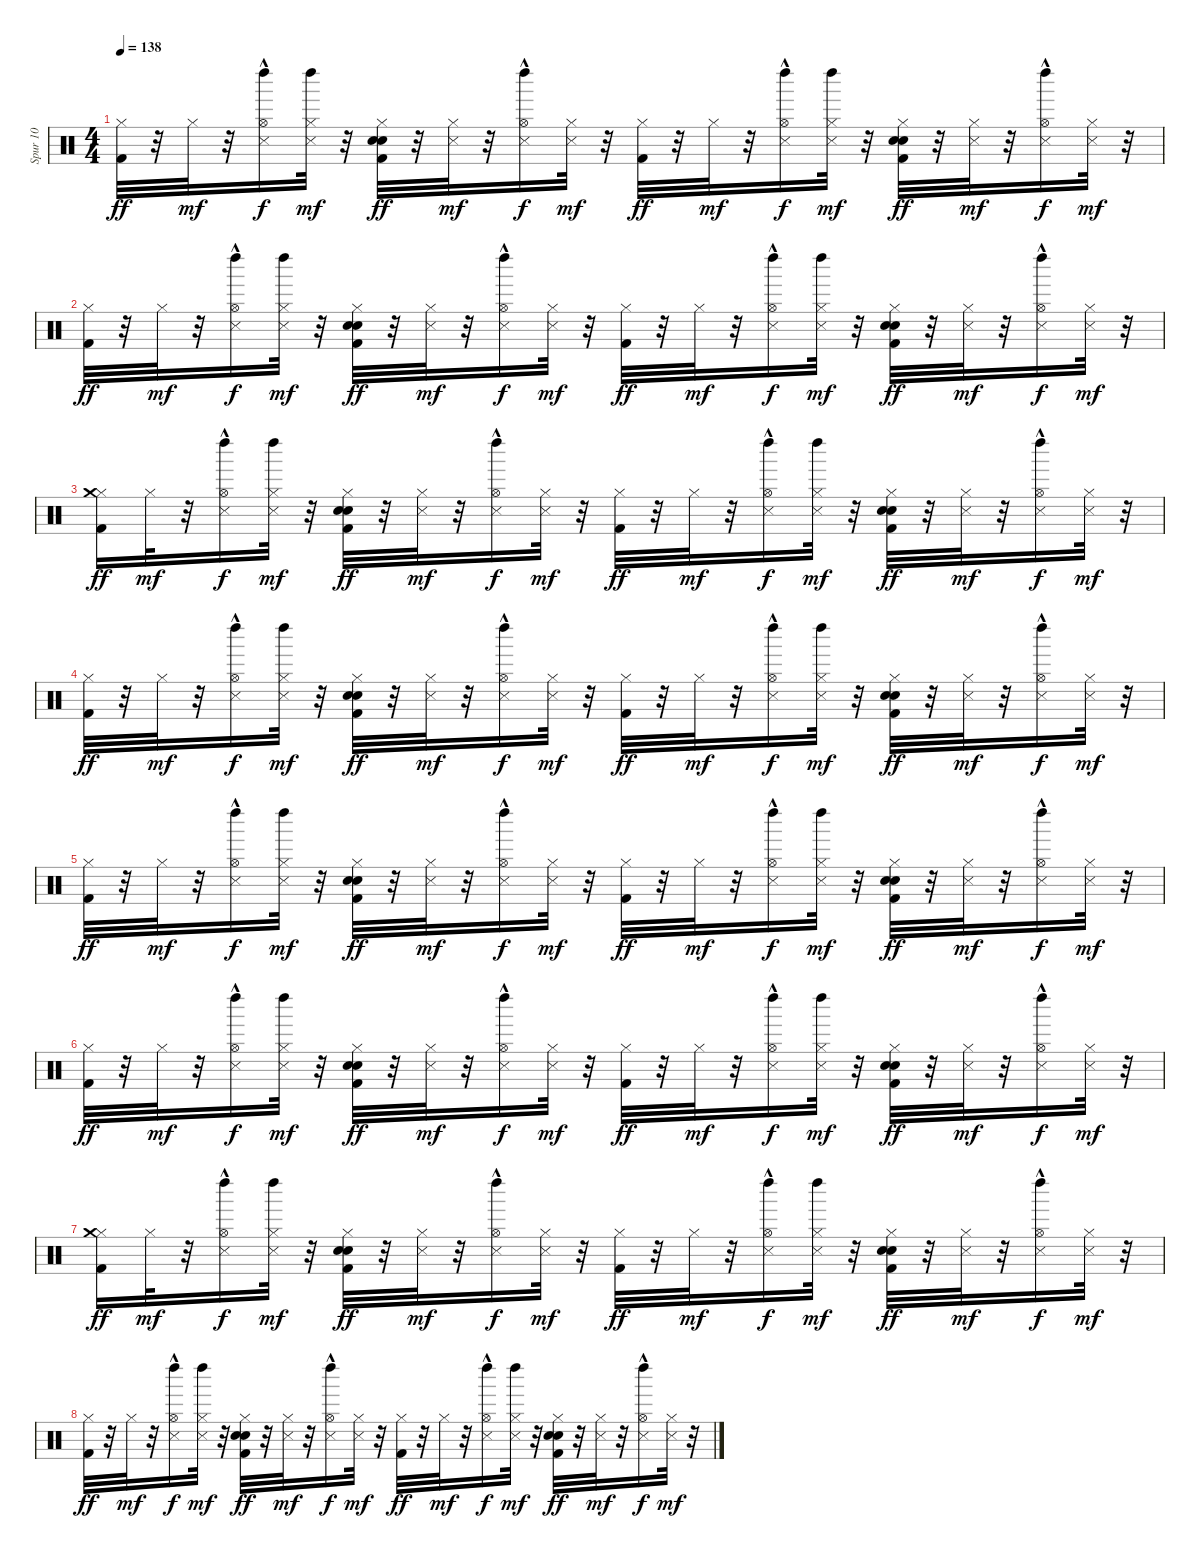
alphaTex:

\track ("Spur 10" "Spur 10") {instrument percussion}
\staff {score}
\articulation defaults
\ts (4 4)
\tempo 138
\clef neutral
\ks c
("Hi-Hat (closed)" "Kick (hit) 2").32{dy ff} r.32 "Hi-Hat (closed)".32{dy mf} r.32 ("Snare (side stick) 3" "Hi-Hat (open)"{hac} "Left Maraca (hit)").16{dy f} ("Hi-Hat (closed)" "Snare (side stick) 3" "Left Maraca (hit)").32{dy mf} r.32 ("Hand Clap (hit)" "Hi-Hat (closed)" "Kick (hit) 2" "Electric Snare (hit)").32{dy ff} r.32 ("Hi-Hat (closed)" "Snare (side stick) 3").32{dy mf} r.32 ("Snare (side stick) 3" "Hi-Hat (open)"{hac} "Left Maraca (hit)").16{dy f} ("Hi-Hat (closed)" "Snare (side stick) 3").32{dy mf} r.32 ("Hi-Hat (closed)" "Kick (hit) 2").32{dy ff} r.32 "Hi-Hat (closed)".32{dy mf} r.32 ("Snare (side stick) 3" "Hi-Hat (open)"{hac} "Left Maraca (hit)").16{dy f} ("Hi-Hat (closed)" "Snare (side stick) 3" "Left Maraca (hit)").32{dy mf} r.32 ("Hand Clap (hit)" "Hi-Hat (closed)" "Kick (hit) 2" "Electric Snare (hit)").32{dy ff} r.32 ("Hi-Hat (closed)" "Snare (side stick) 3").32{dy mf} r.32 ("Snare (side stick) 3" "Hi-Hat (open)"{hac} "Left Maraca (hit)").16{dy f} ("Hi-Hat (closed)" "Snare (side stick) 3").32{dy mf} r.32 |
("Hi-Hat (closed)" "Kick (hit) 2").32{dy ff} r.32 "Hi-Hat (closed)".32{dy mf} r.32 ("Snare (side stick) 3" "Hi-Hat (open)"{hac} "Left Maraca (hit)").16{dy f} ("Hi-Hat (closed)" "Snare (side stick) 3" "Left Maraca (hit)").32{dy mf} r.32 ("Hand Clap (hit)" "Hi-Hat (closed)" "Kick (hit) 2" "Electric Snare (hit)").32{dy ff} r.32 ("Hi-Hat (closed)" "Snare (side stick) 3").32{dy mf} r.32 ("Snare (side stick) 3" "Hi-Hat (open)"{hac} "Left Maraca (hit)").16{dy f} ("Hi-Hat (closed)" "Snare (side stick) 3").32{dy mf} r.32 ("Hi-Hat (closed)" "Kick (hit) 2").32{dy ff} r.32 "Hi-Hat (closed)".32{dy mf} r.32 ("Snare (side stick) 3" "Hi-Hat (open)"{hac} "Left Maraca (hit)").16{dy f} ("Hi-Hat (closed)" "Snare (side stick) 3" "Left Maraca (hit)").32{dy mf} r.32 ("Hand Clap (hit)" "Hi-Hat (closed)" "Kick (hit) 2" "Electric Snare (hit)").32{dy ff} r.32 ("Hi-Hat (closed)" "Snare (side stick) 3").32{dy mf} r.32 ("Snare (side stick) 3" "Hi-Hat (open)"{hac} "Left Maraca (hit)").16{dy f} ("Hi-Hat (closed)" "Snare (side stick) 3").32{dy mf} r.32 |
("Hi-Hat (closed)" "Crash medium (hit)" "Kick (hit) 2").16{dy ff} "Hi-Hat (closed)".32{dy mf} r.32 ("Snare (side stick) 3" "Hi-Hat (open)"{hac} "Left Maraca (hit)").16{dy f} ("Hi-Hat (closed)" "Snare (side stick) 3" "Left Maraca (hit)").32{dy mf} r.32 ("Hand Clap (hit)" "Hi-Hat (closed)" "Kick (hit) 2" "Electric Snare (hit)").32{dy ff} r.32 ("Hi-Hat (closed)" "Snare (side stick) 3").32{dy mf} r.32 ("Snare (side stick) 3" "Hi-Hat (open)"{hac} "Left Maraca (hit)").16{dy f} ("Hi-Hat (closed)" "Snare (side stick) 3").32{dy mf} r.32 ("Hi-Hat (closed)" "Kick (hit) 2").32{dy ff} r.32 "Hi-Hat (closed)".32{dy mf} r.32 ("Snare (side stick) 3" "Hi-Hat (open)"{hac} "Left Maraca (hit)").16{dy f} ("Hi-Hat (closed)" "Snare (side stick) 3" "Left Maraca (hit)").32{dy mf} r.32 ("Hand Clap (hit)" "Hi-Hat (closed)" "Kick (hit) 2" "Electric Snare (hit)").32{dy ff} r.32 ("Hi-Hat (closed)" "Snare (side stick) 3").32{dy mf} r.32 ("Snare (side stick) 3" "Hi-Hat (open)"{hac} "Left Maraca (hit)").16{dy f} ("Hi-Hat (closed)" "Snare (side stick) 3").32{dy mf} r.32 |
("Hi-Hat (closed)" "Kick (hit) 2").32{dy ff} r.32 "Hi-Hat (closed)".32{dy mf} r.32 ("Snare (side stick) 3" "Hi-Hat (open)"{hac} "Left Maraca (hit)").16{dy f} ("Hi-Hat (closed)" "Snare (side stick) 3" "Left Maraca (hit)").32{dy mf} r.32 ("Hand Clap (hit)" "Hi-Hat (closed)" "Kick (hit) 2" "Electric Snare (hit)").32{dy ff} r.32 ("Hi-Hat (closed)" "Snare (side stick) 3").32{dy mf} r.32 ("Snare (side stick) 3" "Hi-Hat (open)"{hac} "Left Maraca (hit)").16{dy f} ("Hi-Hat (closed)" "Snare (side stick) 3").32{dy mf} r.32 ("Hi-Hat (closed)" "Kick (hit) 2").32{dy ff} r.32 "Hi-Hat (closed)".32{dy mf} r.32 ("Snare (side stick) 3" "Hi-Hat (open)"{hac} "Left Maraca (hit)").16{dy f} ("Hi-Hat (closed)" "Snare (side stick) 3" "Left Maraca (hit)").32{dy mf} r.32 ("Hand Clap (hit)" "Hi-Hat (closed)" "Kick (hit) 2" "Electric Snare (hit)").32{dy ff} r.32 ("Hi-Hat (closed)" "Snare (side stick) 3").32{dy mf} r.32 ("Snare (side stick) 3" "Hi-Hat (open)"{hac} "Left Maraca (hit)").16{dy f} ("Hi-Hat (closed)" "Snare (side stick) 3").32{dy mf} r.32 |
("Hi-Hat (closed)" "Kick (hit) 2").32{dy ff} r.32 "Hi-Hat (closed)".32{dy mf} r.32 ("Snare (side stick) 3" "Hi-Hat (open)"{hac} "Left Maraca (hit)").16{dy f} ("Hi-Hat (closed)" "Snare (side stick) 3" "Left Maraca (hit)").32{dy mf} r.32 ("Hand Clap (hit)" "Hi-Hat (closed)" "Kick (hit) 2" "Electric Snare (hit)").32{dy ff} r.32 ("Hi-Hat (closed)" "Snare (side stick) 3").32{dy mf} r.32 ("Snare (side stick) 3" "Hi-Hat (open)"{hac} "Left Maraca (hit)").16{dy f} ("Hi-Hat (closed)" "Snare (side stick) 3").32{dy mf} r.32 ("Hi-Hat (closed)" "Kick (hit) 2").32{dy ff} r.32 "Hi-Hat (closed)".32{dy mf} r.32 ("Snare (side stick) 3" "Hi-Hat (open)"{hac} "Left Maraca (hit)").16{dy f} ("Hi-Hat (closed)" "Snare (side stick) 3" "Left Maraca (hit)").32{dy mf} r.32 ("Hand Clap (hit)" "Hi-Hat (closed)" "Kick (hit) 2" "Electric Snare (hit)").32{dy ff} r.32 ("Hi-Hat (closed)" "Snare (side stick) 3").32{dy mf} r.32 ("Snare (side stick) 3" "Hi-Hat (open)"{hac} "Left Maraca (hit)").16{dy f} ("Hi-Hat (closed)" "Snare (side stick) 3").32{dy mf} r.32 |
("Hi-Hat (closed)" "Kick (hit) 2").32{dy ff} r.32 "Hi-Hat (closed)".32{dy mf} r.32 ("Snare (side stick) 3" "Hi-Hat (open)"{hac} "Left Maraca (hit)").16{dy f} ("Hi-Hat (closed)" "Snare (side stick) 3" "Left Maraca (hit)").32{dy mf} r.32 ("Hand Clap (hit)" "Hi-Hat (closed)" "Kick (hit) 2" "Electric Snare (hit)").32{dy ff} r.32 ("Hi-Hat (closed)" "Snare (side stick) 3").32{dy mf} r.32 ("Snare (side stick) 3" "Hi-Hat (open)"{hac} "Left Maraca (hit)").16{dy f} ("Hi-Hat (closed)" "Snare (side stick) 3").32{dy mf} r.32 ("Hi-Hat (closed)" "Kick (hit) 2").32{dy ff} r.32 "Hi-Hat (closed)".32{dy mf} r.32 ("Snare (side stick) 3" "Hi-Hat (open)"{hac} "Left Maraca (hit)").16{dy f} ("Hi-Hat (closed)" "Snare (side stick) 3" "Left Maraca (hit)").32{dy mf} r.32 ("Hand Clap (hit)" "Hi-Hat (closed)" "Kick (hit) 2" "Electric Snare (hit)").32{dy ff} r.32 ("Hi-Hat (closed)" "Snare (side stick) 3").32{dy mf} r.32 ("Snare (side stick) 3" "Hi-Hat (open)"{hac} "Left Maraca (hit)").16{dy f} ("Hi-Hat (closed)" "Snare (side stick) 3").32{dy mf} r.32 |
("Hi-Hat (closed)" "Crash medium (hit)" "Kick (hit) 2").16{dy ff} "Hi-Hat (closed)".32{dy mf} r.32 ("Snare (side stick) 3" "Hi-Hat (open)"{hac} "Left Maraca (hit)").16{dy f} ("Hi-Hat (closed)" "Snare (side stick) 3" "Left Maraca (hit)").32{dy mf} r.32 ("Hand Clap (hit)" "Hi-Hat (closed)" "Kick (hit) 2" "Electric Snare (hit)").32{dy ff} r.32 ("Hi-Hat (closed)" "Snare (side stick) 3").32{dy mf} r.32 ("Snare (side stick) 3" "Hi-Hat (open)"{hac} "Left Maraca (hit)").16{dy f} ("Hi-Hat (closed)" "Snare (side stick) 3").32{dy mf} r.32 ("Hi-Hat (closed)" "Kick (hit) 2").32{dy ff} r.32 "Hi-Hat (closed)".32{dy mf} r.32 ("Snare (side stick) 3" "Hi-Hat (open)"{hac} "Left Maraca (hit)").16{dy f} ("Hi-Hat (closed)" "Snare (side stick) 3" "Left Maraca (hit)").32{dy mf} r.32 ("Hand Clap (hit)" "Hi-Hat (closed)" "Kick (hit) 2" "Electric Snare (hit)").32{dy ff} r.32 ("Hi-Hat (closed)" "Snare (side stick) 3").32{dy mf} r.32 ("Snare (side stick) 3" "Hi-Hat (open)"{hac} "Left Maraca (hit)").16{dy f} ("Hi-Hat (closed)" "Snare (side stick) 3").32{dy mf} r.32 |
("Hi-Hat (closed)" "Kick (hit) 2").32{dy ff} r.32 "Hi-Hat (closed)".32{dy mf} r.32 ("Snare (side stick) 3" "Hi-Hat (open)"{hac} "Left Maraca (hit)").16{dy f} ("Hi-Hat (closed)" "Snare (side stick) 3" "Left Maraca (hit)").32{dy mf} r.32 ("Hand Clap (hit)" "Hi-Hat (closed)" "Kick (hit) 2" "Electric Snare (hit)").32{dy ff} r.32 ("Hi-Hat (closed)" "Snare (side stick) 3").32{dy mf} r.32 ("Snare (side stick) 3" "Hi-Hat (open)"{hac} "Left Maraca (hit)").16{dy f} ("Hi-Hat (closed)" "Snare (side stick) 3").32{dy mf} r.32 ("Hi-Hat (closed)" "Kick (hit) 2").32{dy ff} r.32 "Hi-Hat (closed)".32{dy mf} r.32 ("Snare (side stick) 3" "Hi-Hat (open)"{hac} "Left Maraca (hit)").16{dy f} ("Hi-Hat (closed)" "Snare (side stick) 3" "Left Maraca (hit)").32{dy mf} r.32 ("Hand Clap (hit)" "Hi-Hat (closed)" "Kick (hit) 2" "Electric Snare (hit)").32{dy ff} r.32 ("Hi-Hat (closed)" "Snare (side stick) 3").32{dy mf} r.32 ("Snare (side stick) 3" "Hi-Hat (open)"{hac} "Left Maraca (hit)").16{dy f} ("Hi-Hat (closed)" "Snare (side stick) 3").32{dy mf} r.32
